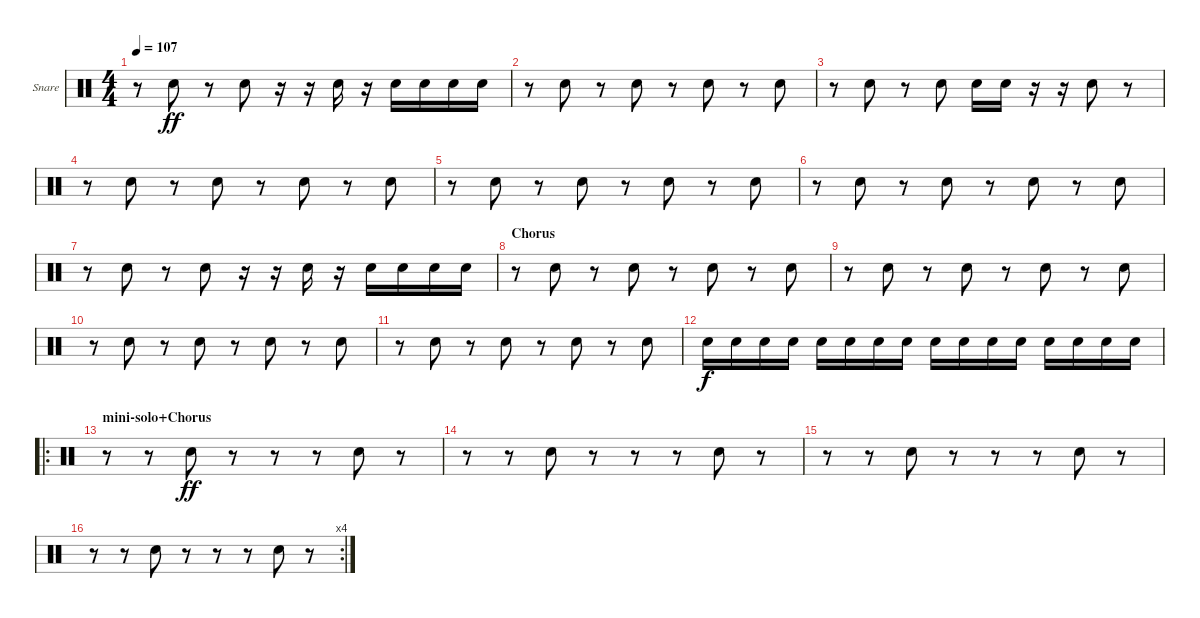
\bracketExtendMode groupsimilarinstruments
\firstSystemTrackNameOrientation horizontal
\otherSystemsTrackNameOrientation horizontal
\track ("Snare" "Snare") {instrument percussion}
\staff {score}
\articulation defaults
\ts (4 4)
\tempo 107
\clef neutral
\ks c
r.8{dy ff} "Snare (hit) 2".8 r.8 "Snare (hit) 2".8 r.16 r.16 "Snare (hit) 2".16 r.16 "Snare (hit) 2".16 "Snare (hit) 2".16 "Snare (hit) 2".16 "Snare (hit) 2".16 |
r.8 "Snare (hit) 2".8 r.8 "Snare (hit) 2".8 r.8 "Snare (hit) 2".8 r.8 "Snare (hit) 2".8 |
r.8 "Snare (hit) 2".8 r.8 "Snare (hit) 2".8 "Snare (hit) 2".16 "Snare (hit) 2".16 r.16 r.16 "Snare (hit) 2".8 r.8 |
r.8 "Snare (hit) 2".8 r.8 "Snare (hit) 2".8 r.8 "Snare (hit) 2".8 r.8 "Snare (hit) 2".8 |
r.8 "Snare (hit) 2".8 r.8 "Snare (hit) 2".8 r.8 "Snare (hit) 2".8 r.8 "Snare (hit) 2".8 |
r.8 "Snare (hit) 2".8 r.8 "Snare (hit) 2".8 r.8 "Snare (hit) 2".8 r.8 "Snare (hit) 2".8 |
r.8 "Snare (hit) 2".8 r.8 "Snare (hit) 2".8 r.16 r.16 "Snare (hit) 2".16 r.16 "Snare (hit) 2".16 "Snare (hit) 2".16 "Snare (hit) 2".16 "Snare (hit) 2".16 |
\section ("" "Chorus")
r.8 "Snare (hit) 2".8 r.8 "Snare (hit) 2".8 r.8 "Snare (hit) 2".8 r.8 "Snare (hit) 2".8 |
r.8 "Snare (hit) 2".8 r.8 "Snare (hit) 2".8 r.8 "Snare (hit) 2".8 r.8 "Snare (hit) 2".8 |
r.8 "Snare (hit) 2".8 r.8 "Snare (hit) 2".8 r.8 "Snare (hit) 2".8 r.8 "Snare (hit) 2".8 |
r.8 "Snare (hit) 2".8 r.8 "Snare (hit) 2".8 r.8 "Snare (hit) 2".8 r.8 "Snare (hit) 2".8 |
"Snare (hit) 2".16{dy f} "Snare (hit) 2".16 "Snare (hit) 2".16 "Snare (hit) 2".16 "Snare (hit) 2".16 "Snare (hit) 2".16 "Snare (hit) 2".16 "Snare (hit) 2".16 "Snare (hit) 2".16 "Snare (hit) 2".16 "Snare (hit) 2".16 "Snare (hit) 2".16 "Snare (hit) 2".16 "Snare (hit) 2".16 "Snare (hit) 2".16 "Snare (hit) 2".16 |
\ro
\section ("" "mini-solo+Chorus")
r.8 r.8 "Snare (hit) 2".8{dy ff} r.8 r.8 r.8 "Snare (hit) 2".8 r.8 |
r.8 r.8 "Snare (hit) 2".8 r.8 r.8 r.8 "Snare (hit) 2".8 r.8 |
r.8 r.8 "Snare (hit) 2".8 r.8 r.8 r.8 "Snare (hit) 2".8 r.8 |
\rc 4
r.8 r.8 "Snare (hit) 2".8 r.8 r.8 r.8 "Snare (hit) 2".8 r.8
